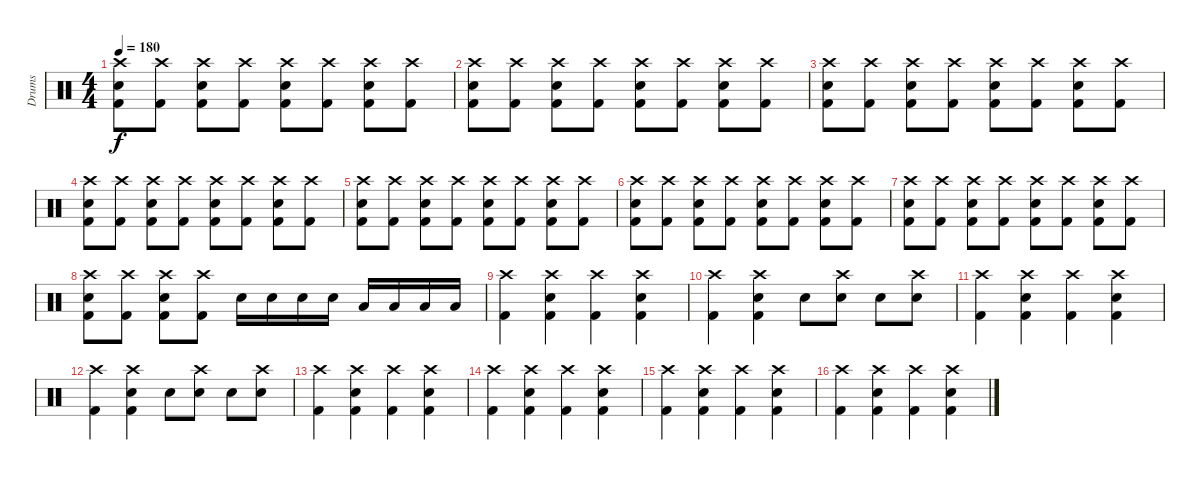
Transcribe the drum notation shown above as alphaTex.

\track ("Drums" "Drums") {instrument percussion}
\staff {score}
\articulation defaults
\ts (4 4)
\tempo 180
\clef neutral
\ks c
("Crash high (hit)" "Snare (hit) 2" "Kick (hit) 2").8{dy f} ("Crash high (hit)" "Kick (hit) 2").8 ("Crash high (hit)" "Snare (hit) 2" "Kick (hit) 2").8 ("Crash high (hit)" "Kick (hit) 2").8 ("Crash high (hit)" "Snare (hit) 2" "Kick (hit) 2").8 ("Crash high (hit)" "Kick (hit) 2").8 ("Crash high (hit)" "Snare (hit) 2" "Kick (hit) 2").8 ("Crash high (hit)" "Kick (hit) 2").8 |
("Crash high (hit)" "Snare (hit) 2" "Kick (hit) 2").8 ("Crash high (hit)" "Kick (hit) 2").8 ("Crash high (hit)" "Snare (hit) 2" "Kick (hit) 2").8 ("Crash high (hit)" "Kick (hit) 2").8 ("Crash high (hit)" "Snare (hit) 2" "Kick (hit) 2").8 ("Crash high (hit)" "Kick (hit) 2").8 ("Crash high (hit)" "Snare (hit) 2" "Kick (hit) 2").8 ("Crash high (hit)" "Kick (hit) 2").8 |
("Crash high (hit)" "Snare (hit) 2" "Kick (hit) 2").8 ("Crash high (hit)" "Kick (hit) 2").8 ("Crash high (hit)" "Snare (hit) 2" "Kick (hit) 2").8 ("Crash high (hit)" "Kick (hit) 2").8 ("Crash high (hit)" "Snare (hit) 2" "Kick (hit) 2").8 ("Crash high (hit)" "Kick (hit) 2").8 ("Crash high (hit)" "Snare (hit) 2" "Kick (hit) 2").8 ("Crash high (hit)" "Kick (hit) 2").8 |
("Crash high (hit)" "Snare (hit) 2" "Kick (hit) 2").8 ("Crash high (hit)" "Kick (hit) 2").8 ("Crash high (hit)" "Snare (hit) 2" "Kick (hit) 2").8 ("Crash high (hit)" "Kick (hit) 2").8 ("Crash high (hit)" "Snare (hit) 2" "Kick (hit) 2").8 ("Crash high (hit)" "Kick (hit) 2").8 ("Crash high (hit)" "Snare (hit) 2" "Kick (hit) 2").8 ("Crash high (hit)" "Kick (hit) 2").8 |
("Crash high (hit)" "Snare (hit) 2" "Kick (hit) 2").8 ("Crash high (hit)" "Kick (hit) 2").8 ("Crash high (hit)" "Snare (hit) 2" "Kick (hit) 2").8 ("Crash high (hit)" "Kick (hit) 2").8 ("Crash high (hit)" "Snare (hit) 2" "Kick (hit) 2").8 ("Crash high (hit)" "Kick (hit) 2").8 ("Crash high (hit)" "Snare (hit) 2" "Kick (hit) 2").8 ("Crash high (hit)" "Kick (hit) 2").8 |
("Crash high (hit)" "Snare (hit) 2" "Kick (hit) 2").8 ("Crash high (hit)" "Kick (hit) 2").8 ("Crash high (hit)" "Snare (hit) 2" "Kick (hit) 2").8 ("Crash high (hit)" "Kick (hit) 2").8 ("Crash high (hit)" "Snare (hit) 2" "Kick (hit) 2").8 ("Crash high (hit)" "Kick (hit) 2").8 ("Crash high (hit)" "Snare (hit) 2" "Kick (hit) 2").8 ("Crash high (hit)" "Kick (hit) 2").8 |
("Crash high (hit)" "Snare (hit) 2" "Kick (hit) 2").8 ("Crash high (hit)" "Kick (hit) 2").8 ("Crash high (hit)" "Snare (hit) 2" "Kick (hit) 2").8 ("Crash high (hit)" "Kick (hit) 2").8 ("Crash high (hit)" "Snare (hit) 2" "Kick (hit) 2").8 ("Crash high (hit)" "Kick (hit) 2").8 ("Crash high (hit)" "Snare (hit) 2" "Kick (hit) 2").8 ("Crash high (hit)" "Kick (hit) 2").8 |
("Crash high (hit)" "Snare (hit) 2" "Kick (hit) 2").8 ("Crash high (hit)" "Kick (hit) 2").8 ("Crash high (hit)" "Snare (hit) 2" "Kick (hit) 2").8 ("Crash high (hit)" "Kick (hit) 2").8 "Snare (hit) 2".16 "Snare (hit) 2".16 "Snare (hit) 2".16 "Snare (hit) 2".16 "Low Floor Tom (hit)".16 "Low Floor Tom (hit)".16 "Low Floor Tom (hit)".16 "Low Floor Tom (hit)".16 |
("Crash high (hit)" "Kick (hit) 2").4 ("Crash high (hit)" "Snare (hit) 2" "Kick (hit) 2").4 ("Crash high (hit)" "Kick (hit) 2").4 ("Crash high (hit)" "Snare (hit) 2" "Kick (hit) 2").4 |
("Crash high (hit)" "Kick (hit) 2").4 ("Crash high (hit)" "Snare (hit) 2" "Kick (hit) 2").4 "Snare (hit) 2".8 ("Crash high (hit)" "Snare (hit) 2").8 "Snare (hit) 2".8 ("Crash high (hit)" "Snare (hit) 2").8 |
("Crash high (hit)" "Kick (hit) 2").4 ("Crash high (hit)" "Snare (hit) 2" "Kick (hit) 2").4 ("Crash high (hit)" "Kick (hit) 2").4 ("Crash high (hit)" "Snare (hit) 2" "Kick (hit) 2").4 |
("Crash high (hit)" "Kick (hit) 2").4 ("Crash high (hit)" "Snare (hit) 2" "Kick (hit) 2").4 "Snare (hit) 2".8 ("Crash high (hit)" "Snare (hit) 2").8 "Snare (hit) 2".8 ("Crash high (hit)" "Snare (hit) 2").8 |
("Crash high (hit)" "Kick (hit) 2").4 ("Crash high (hit)" "Snare (hit) 2" "Kick (hit) 2").4 ("Crash high (hit)" "Kick (hit) 2").4 ("Crash high (hit)" "Snare (hit) 2" "Kick (hit) 2").4 |
("Crash high (hit)" "Kick (hit) 2").4 ("Crash high (hit)" "Snare (hit) 2" "Kick (hit) 2").4 ("Crash high (hit)" "Kick (hit) 2").4 ("Crash high (hit)" "Snare (hit) 2" "Kick (hit) 2").4 |
("Crash high (hit)" "Kick (hit) 2").4 ("Crash high (hit)" "Snare (hit) 2" "Kick (hit) 2").4 ("Crash high (hit)" "Kick (hit) 2").4 ("Crash high (hit)" "Snare (hit) 2" "Kick (hit) 2").4 |
("Crash high (hit)" "Kick (hit) 2").4 ("Crash high (hit)" "Snare (hit) 2" "Kick (hit) 2").4 ("Crash high (hit)" "Kick (hit) 2").4 ("Crash high (hit)" "Snare (hit) 2" "Kick (hit) 2").4
